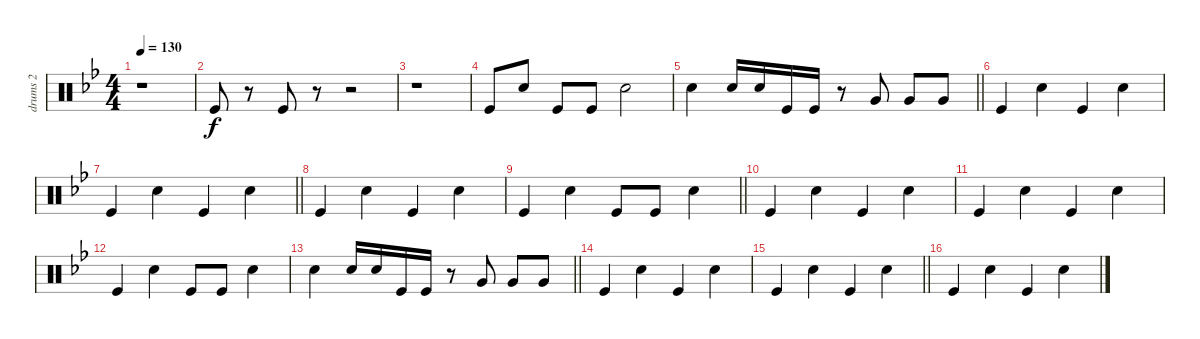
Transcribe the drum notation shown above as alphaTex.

\track ("drums 2" "drums 2") {instrument percussion}
\staff {score}
\articulation defaults
\ts (4 4)
\tempo 130
\clef neutral
\ks bb
r.1{dy f} |
"Kick (hit)".8 r.8 "Kick (hit)".8 r.8 r.2 |
r.1 |
"Kick (hit)".8 "Snare (hit) 2".8 "Kick (hit)".8 "Kick (hit)".8 "Snare (hit) 2".2 |
\barLineRight lightlight "Snare (hit) 2".4 "Snare (hit) 2".16 "Snare (hit) 2".16 "Kick (hit)".16 "Kick (hit)".16
r.8 "Very Low Tom (hit)".8 "Very Low Tom (hit)".8 "Very Low Tom (hit)".8 |
"Kick (hit)".4 "Snare (hit) 2".4 "Kick (hit)".4 "Snare (hit) 2".4 |
\barLineRight lightlight "Kick (hit)".4 "Snare (hit) 2".4 "Kick (hit)".4 "Snare (hit) 2".4
|
"Kick (hit)".4 "Snare (hit) 2".4 "Kick (hit)".4 "Snare (hit) 2".4 |
\barLineRight lightlight "Kick (hit)".4 "Snare (hit) 2".4 "Kick (hit)".8 "Kick (hit)".8 "Snare (hit) 2".4
|
"Kick (hit)".4 "Snare (hit) 2".4 "Kick (hit)".4 "Snare (hit) 2".4 |
"Kick (hit)".4 "Snare (hit) 2".4 "Kick (hit)".4 "Snare (hit) 2".4 |
"Kick (hit)".4 "Snare (hit) 2".4 "Kick (hit)".8 "Kick (hit)".8 "Snare (hit) 2".4 |
\barLineRight lightlight "Snare (hit) 2".4 "Snare (hit) 2".16 "Snare (hit) 2".16 "Kick (hit)".16 "Kick (hit)".16
r.8 "Very Low Tom (hit)".8 "Very Low Tom (hit)".8 "Very Low Tom (hit)".8 |
"Kick (hit)".4 "Snare (hit) 2".4 "Kick (hit)".4 "Snare (hit) 2".4 |
\barLineRight lightlight "Kick (hit)".4 "Snare (hit) 2".4 "Kick (hit)".4 "Snare (hit) 2".4
|
"Kick (hit)".4 "Snare (hit) 2".4 "Kick (hit)".4 "Snare (hit) 2".4
